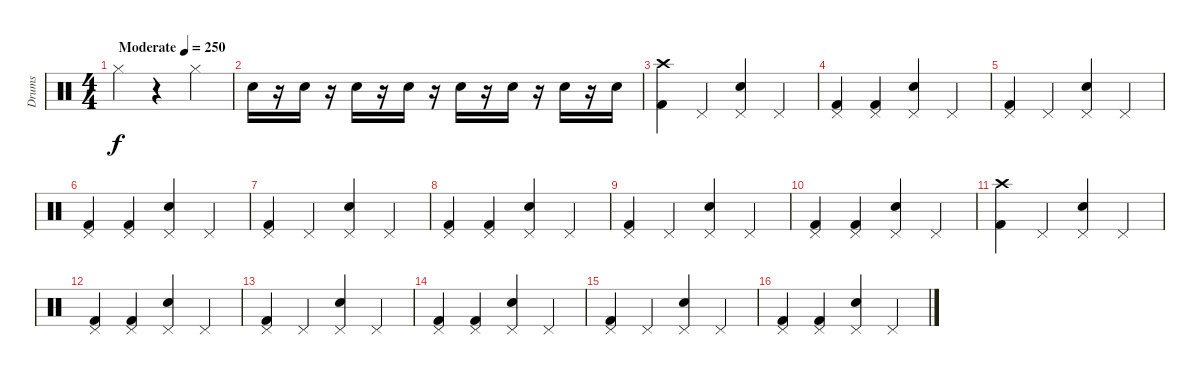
\track ("Drums" "Drums") {instrument percussion}
\staff {score}
\articulation defaults
\ts (4 4)
\tempo (250 "Moderate")
\clef neutral
\ks c "Hi-Hat (closed)".4{dy f}
r.4 "Hi-Hat (closed)".4 |
"Electric Snare (hit)".16 r.16 "Electric Snare (hit)".16 r.16 "Electric Snare (hit)".16 r.16 "Electric Snare (hit)".16 r.16 "Electric Snare (hit)".16 r.16 "Electric Snare (hit)".16 r.16 "Electric Snare (hit)".16 r.16 "Electric Snare (hit)".16 |
("Kick (hit) 2" "Crash high (hit)").4 "Pedal Hi-Hat (hit)".4 ("Pedal Hi-Hat (hit)" "Electric Snare (hit)").4 "Pedal Hi-Hat (hit)".4 |
("Pedal Hi-Hat (hit)" "Kick (hit) 2").4 ("Pedal Hi-Hat (hit)" "Kick (hit) 2").4 ("Pedal Hi-Hat (hit)" "Electric Snare (hit)").4 "Pedal Hi-Hat (hit)".4 |
("Pedal Hi-Hat (hit)" "Kick (hit) 2").4 "Pedal Hi-Hat (hit)".4 ("Pedal Hi-Hat (hit)" "Electric Snare (hit)").4 "Pedal Hi-Hat (hit)".4 |
("Pedal Hi-Hat (hit)" "Kick (hit) 2").4 ("Pedal Hi-Hat (hit)" "Kick (hit) 2").4 ("Pedal Hi-Hat (hit)" "Electric Snare (hit)").4 "Pedal Hi-Hat (hit)".4 |
("Pedal Hi-Hat (hit)" "Kick (hit) 2").4 "Pedal Hi-Hat (hit)".4 ("Pedal Hi-Hat (hit)" "Electric Snare (hit)").4 "Pedal Hi-Hat (hit)".4 |
("Pedal Hi-Hat (hit)" "Kick (hit) 2").4 ("Pedal Hi-Hat (hit)" "Kick (hit) 2").4 ("Pedal Hi-Hat (hit)" "Electric Snare (hit)").4 "Pedal Hi-Hat (hit)".4 |
("Pedal Hi-Hat (hit)" "Kick (hit) 2").4 "Pedal Hi-Hat (hit)".4 ("Pedal Hi-Hat (hit)" "Electric Snare (hit)").4 "Pedal Hi-Hat (hit)".4 |
("Pedal Hi-Hat (hit)" "Kick (hit) 2").4 ("Pedal Hi-Hat (hit)" "Kick (hit) 2").4 ("Pedal Hi-Hat (hit)" "Electric Snare (hit)").4 "Pedal Hi-Hat (hit)".4 |
("Kick (hit) 2" "Crash high (hit)").4 "Pedal Hi-Hat (hit)".4 ("Pedal Hi-Hat (hit)" "Electric Snare (hit)").4 "Pedal Hi-Hat (hit)".4 |
("Pedal Hi-Hat (hit)" "Kick (hit) 2").4 ("Pedal Hi-Hat (hit)" "Kick (hit) 2").4 ("Pedal Hi-Hat (hit)" "Electric Snare (hit)").4 "Pedal Hi-Hat (hit)".4 |
("Pedal Hi-Hat (hit)" "Kick (hit) 2").4 "Pedal Hi-Hat (hit)".4 ("Pedal Hi-Hat (hit)" "Electric Snare (hit)").4 "Pedal Hi-Hat (hit)".4 |
("Pedal Hi-Hat (hit)" "Kick (hit) 2").4 ("Pedal Hi-Hat (hit)" "Kick (hit) 2").4 ("Pedal Hi-Hat (hit)" "Electric Snare (hit)").4 "Pedal Hi-Hat (hit)".4 |
("Pedal Hi-Hat (hit)" "Kick (hit) 2").4 "Pedal Hi-Hat (hit)".4 ("Pedal Hi-Hat (hit)" "Electric Snare (hit)").4 "Pedal Hi-Hat (hit)".4 |
("Pedal Hi-Hat (hit)" "Kick (hit) 2").4 ("Pedal Hi-Hat (hit)" "Kick (hit) 2").4 ("Pedal Hi-Hat (hit)" "Electric Snare (hit)").4 "Pedal Hi-Hat (hit)".4
